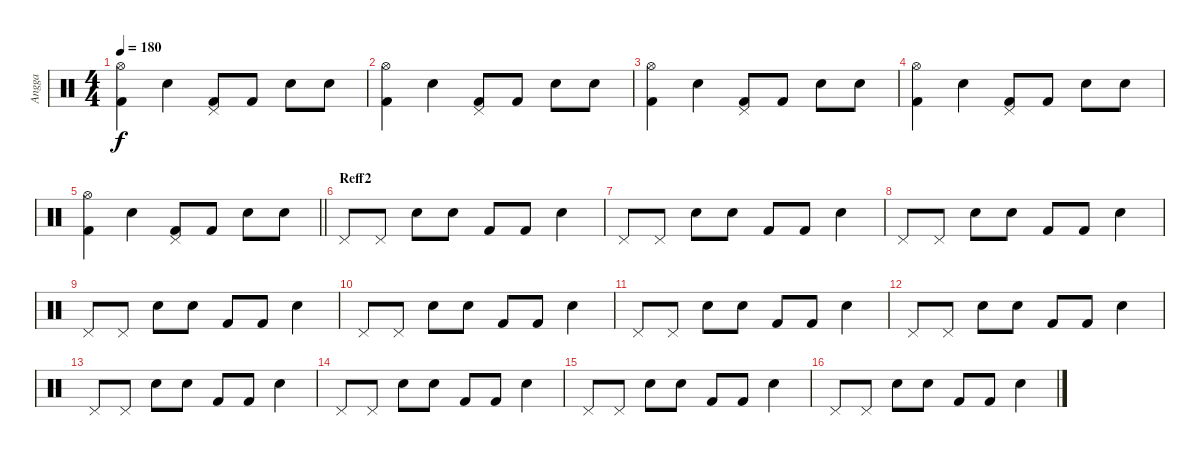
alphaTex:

\track ("Angga" "Angga") {instrument percussion}
\staff {score}
\articulation defaults
\ts (4 4)
\tempo 180
\clef neutral
\ks c
("Kick (hit) 2" "Hi-Hat (open)").4{dy f} "Snare (hit) 2".4 ("Kick (hit) 2" "Pedal Hi-Hat (hit)").8 "Kick (hit) 2".8 "Snare (hit) 2".8 "Snare (hit) 2".8 |
("Kick (hit) 2" "Hi-Hat (open)").4 "Snare (hit) 2".4 ("Kick (hit) 2" "Pedal Hi-Hat (hit)").8 "Kick (hit) 2".8 "Snare (hit) 2".8 "Snare (hit) 2".8 |
("Kick (hit) 2" "Hi-Hat (open)").4 "Snare (hit) 2".4 ("Kick (hit) 2" "Pedal Hi-Hat (hit)").8 "Kick (hit) 2".8 "Snare (hit) 2".8 "Snare (hit) 2".8 |
("Kick (hit) 2" "Hi-Hat (open)").4 "Snare (hit) 2".4 ("Kick (hit) 2" "Pedal Hi-Hat (hit)").8 "Kick (hit) 2".8 "Snare (hit) 2".8 "Snare (hit) 2".8 |
\barLineRight lightlight
("Kick (hit) 2" "Hi-Hat (open)").4 "Snare (hit) 2".4 ("Kick (hit) 2" "Pedal Hi-Hat (hit)").8 "Kick (hit) 2".8 "Snare (hit) 2".8 "Snare (hit) 2".8 |
\section ("" "Reff2")
"Pedal Hi-Hat (hit)".8 "Pedal Hi-Hat (hit)".8 "Snare (hit) 2".8 "Snare (hit) 2".8 "Kick (hit) 2".8 "Kick (hit) 2".8 "Snare (hit) 2".4 |
"Pedal Hi-Hat (hit)".8 "Pedal Hi-Hat (hit)".8 "Snare (hit) 2".8 "Snare (hit) 2".8 "Kick (hit) 2".8 "Kick (hit) 2".8 "Snare (hit) 2".4 |
"Pedal Hi-Hat (hit)".8 "Pedal Hi-Hat (hit)".8 "Snare (hit) 2".8 "Snare (hit) 2".8 "Kick (hit) 2".8 "Kick (hit) 2".8 "Snare (hit) 2".4 |
"Pedal Hi-Hat (hit)".8 "Pedal Hi-Hat (hit)".8 "Snare (hit) 2".8 "Snare (hit) 2".8 "Kick (hit) 2".8 "Kick (hit) 2".8 "Snare (hit) 2".4 |
"Pedal Hi-Hat (hit)".8 "Pedal Hi-Hat (hit)".8 "Snare (hit) 2".8 "Snare (hit) 2".8 "Kick (hit) 2".8 "Kick (hit) 2".8 "Snare (hit) 2".4 |
"Pedal Hi-Hat (hit)".8 "Pedal Hi-Hat (hit)".8 "Snare (hit) 2".8 "Snare (hit) 2".8 "Kick (hit) 2".8 "Kick (hit) 2".8 "Snare (hit) 2".4 |
"Pedal Hi-Hat (hit)".8 "Pedal Hi-Hat (hit)".8 "Snare (hit) 2".8 "Snare (hit) 2".8 "Kick (hit) 2".8 "Kick (hit) 2".8 "Snare (hit) 2".4 |
"Pedal Hi-Hat (hit)".8 "Pedal Hi-Hat (hit)".8 "Snare (hit) 2".8 "Snare (hit) 2".8 "Kick (hit) 2".8 "Kick (hit) 2".8 "Snare (hit) 2".4 |
"Pedal Hi-Hat (hit)".8 "Pedal Hi-Hat (hit)".8 "Snare (hit) 2".8 "Snare (hit) 2".8 "Kick (hit) 2".8 "Kick (hit) 2".8 "Snare (hit) 2".4 |
"Pedal Hi-Hat (hit)".8 "Pedal Hi-Hat (hit)".8 "Snare (hit) 2".8 "Snare (hit) 2".8 "Kick (hit) 2".8 "Kick (hit) 2".8 "Snare (hit) 2".4 |
"Pedal Hi-Hat (hit)".8 "Pedal Hi-Hat (hit)".8 "Snare (hit) 2".8 "Snare (hit) 2".8 "Kick (hit) 2".8 "Kick (hit) 2".8 "Snare (hit) 2".4
